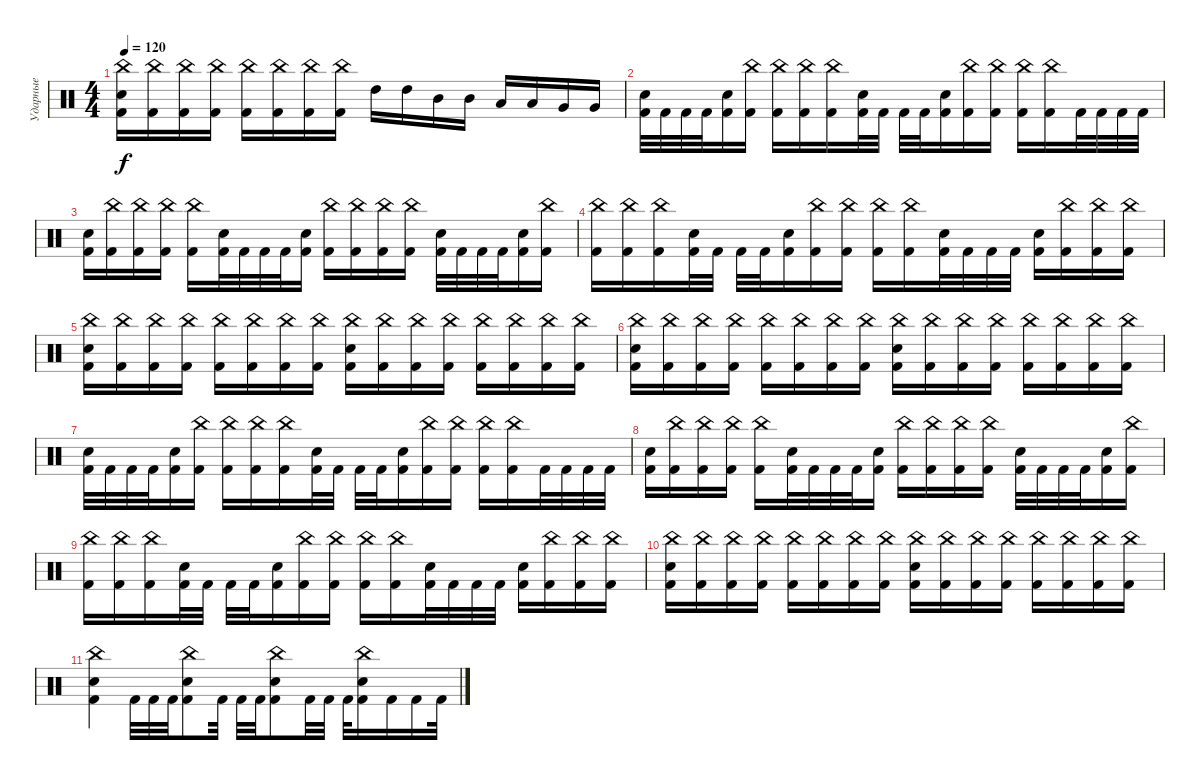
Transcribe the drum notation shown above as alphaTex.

\track ("Ударные" "Ударные") {instrument percussion}
\staff {score}
\articulation defaults
\ts (4 4)
\tempo 120
\clef neutral
\ks c
("China (hit)" "Snare (hit) 2" "Kick (hit) 2").16{dy f} ("China (hit)" "Kick (hit) 2").16 ("China (hit)" "Kick (hit) 2").16 ("China (hit)" "Kick (hit) 2").16 ("China (hit)" "Kick (hit) 2").16 ("China (hit)" "Kick (hit) 2").16 ("China (hit)" "Kick (hit) 2").16 ("China (hit)" "Kick (hit) 2").16 "High Tom (hit)".16 "High Tom (hit)".16 "Mid Tom (hit)".16 "Mid Tom (hit)".16 "Low Tom (hit)".16 "Low Tom (hit)".16 "Very Low Tom (hit)".16 "Very Low Tom (hit)".16 |
("Snare (hit) 2" "Kick (hit) 2").32 "Kick (hit) 2".32 "Kick (hit) 2".32 "Kick (hit) 2".32 ("Snare (hit) 2" "Kick (hit) 2").16 ("China (hit)" "Kick (hit) 2").16 ("China (hit)" "Kick (hit) 2").16 ("China (hit)" "Kick (hit) 2").16 ("China (hit)" "Kick (hit) 2").16 ("Snare (hit) 2" "Kick (hit) 2").32 "Kick (hit) 2".32 "Kick (hit) 2".32 "Kick (hit) 2".32 ("Snare (hit) 2" "Kick (hit) 2").16 ("China (hit)" "Kick (hit) 2").16 ("China (hit)" "Kick (hit) 2").16 ("China (hit)" "Kick (hit) 2").16 ("China (hit)" "Kick (hit) 2").16 "Kick (hit) 2".32 "Kick (hit) 2".32 "Kick (hit) 2".32 "Kick (hit) 2".32 |
("Snare (hit) 2" "Kick (hit) 2").16 ("China (hit)" "Kick (hit) 2").16 ("China (hit)" "Kick (hit) 2").16 ("China (hit)" "Kick (hit) 2").16 ("China (hit)" "Kick (hit) 2").16 ("Snare (hit) 2" "Kick (hit) 2").32 "Kick (hit) 2".32 "Kick (hit) 2".32 "Kick (hit) 2".32 ("Snare (hit) 2" "Kick (hit) 2").16 ("China (hit)" "Kick (hit) 2").16 ("China (hit)" "Kick (hit) 2").16 ("China (hit)" "Kick (hit) 2").16 ("China (hit)" "Kick (hit) 2").16 ("Snare (hit) 2" "Kick (hit) 2").32 "Kick (hit) 2".32 "Kick (hit) 2".32 "Kick (hit) 2".32 ("Snare (hit) 2" "Kick (hit) 2").16 ("China (hit)" "Kick (hit) 2").16 |
("China (hit)" "Kick (hit) 2").16 ("China (hit)" "Kick (hit) 2").16 ("China (hit)" "Kick (hit) 2").16 ("Snare (hit) 2" "Kick (hit) 2").32 "Kick (hit) 2".32 "Kick (hit) 2".32 "Kick (hit) 2".32 ("Snare (hit) 2" "Kick (hit) 2").16 ("China (hit)" "Kick (hit) 2").16 ("China (hit)" "Kick (hit) 2").16 ("China (hit)" "Kick (hit) 2").16 ("China (hit)" "Kick (hit) 2").16 ("Snare (hit) 2" "Kick (hit) 2").32 "Kick (hit) 2".32 "Kick (hit) 2".32 "Kick (hit) 2".32 ("Snare (hit) 2" "Kick (hit) 2").16 ("China (hit)" "Kick (hit) 2").16 ("China (hit)" "Kick (hit) 2").16 ("China (hit)" "Kick (hit) 2").16 |
("China (hit)" "Snare (hit) 2" "Kick (hit) 2").16 ("China (hit)" "Kick (hit) 2").16 ("China (hit)" "Kick (hit) 2").16 ("China (hit)" "Kick (hit) 2").16 ("China (hit)" "Kick (hit) 2").16 ("China (hit)" "Kick (hit) 2").16 ("China (hit)" "Kick (hit) 2").16 ("China (hit)" "Kick (hit) 2").16 ("China (hit)" "Snare (hit) 2" "Kick (hit) 2").16 ("China (hit)" "Kick (hit) 2").16 ("China (hit)" "Kick (hit) 2").16 ("China (hit)" "Kick (hit) 2").16 ("China (hit)" "Kick (hit) 2").16 ("China (hit)" "Kick (hit) 2").16 ("China (hit)" "Kick (hit) 2").16 ("China (hit)" "Kick (hit) 2").16 |
("China (hit)" "Snare (hit) 2" "Kick (hit) 2").16 ("China (hit)" "Kick (hit) 2").16 ("China (hit)" "Kick (hit) 2").16 ("China (hit)" "Kick (hit) 2").16 ("China (hit)" "Kick (hit) 2").16 ("China (hit)" "Kick (hit) 2").16 ("China (hit)" "Kick (hit) 2").16 ("China (hit)" "Kick (hit) 2").16 ("China (hit)" "Snare (hit) 2" "Kick (hit) 2").16 ("China (hit)" "Kick (hit) 2").16 ("China (hit)" "Kick (hit) 2").16 ("China (hit)" "Kick (hit) 2").16 ("China (hit)" "Kick (hit) 2").16 ("China (hit)" "Kick (hit) 2").16 ("China (hit)" "Kick (hit) 2").16 ("China (hit)" "Kick (hit) 2").16 |
("Snare (hit) 2" "Kick (hit) 2").32 "Kick (hit) 2".32 "Kick (hit) 2".32 "Kick (hit) 2".32 ("Snare (hit) 2" "Kick (hit) 2").16 ("China (hit)" "Kick (hit) 2").16 ("China (hit)" "Kick (hit) 2").16 ("China (hit)" "Kick (hit) 2").16 ("China (hit)" "Kick (hit) 2").16 ("Snare (hit) 2" "Kick (hit) 2").32 "Kick (hit) 2".32 "Kick (hit) 2".32 "Kick (hit) 2".32 ("Snare (hit) 2" "Kick (hit) 2").16 ("China (hit)" "Kick (hit) 2").16 ("China (hit)" "Kick (hit) 2").16 ("China (hit)" "Kick (hit) 2").16 ("China (hit)" "Kick (hit) 2").16 "Kick (hit) 2".32 "Kick (hit) 2".32 "Kick (hit) 2".32 "Kick (hit) 2".32 |
("Snare (hit) 2" "Kick (hit) 2").16 ("China (hit)" "Kick (hit) 2").16 ("China (hit)" "Kick (hit) 2").16 ("China (hit)" "Kick (hit) 2").16 ("China (hit)" "Kick (hit) 2").16 ("Snare (hit) 2" "Kick (hit) 2").32 "Kick (hit) 2".32 "Kick (hit) 2".32 "Kick (hit) 2".32 ("Snare (hit) 2" "Kick (hit) 2").16 ("China (hit)" "Kick (hit) 2").16 ("China (hit)" "Kick (hit) 2").16 ("China (hit)" "Kick (hit) 2").16 ("China (hit)" "Kick (hit) 2").16 ("Snare (hit) 2" "Kick (hit) 2").32 "Kick (hit) 2".32 "Kick (hit) 2".32 "Kick (hit) 2".32 ("Snare (hit) 2" "Kick (hit) 2").16 ("China (hit)" "Kick (hit) 2").16 |
("China (hit)" "Kick (hit) 2").16 ("China (hit)" "Kick (hit) 2").16 ("China (hit)" "Kick (hit) 2").16 ("Snare (hit) 2" "Kick (hit) 2").32 "Kick (hit) 2".32 "Kick (hit) 2".32 "Kick (hit) 2".32 ("Snare (hit) 2" "Kick (hit) 2").16 ("China (hit)" "Kick (hit) 2").16 ("China (hit)" "Kick (hit) 2").16 ("China (hit)" "Kick (hit) 2").16 ("China (hit)" "Kick (hit) 2").16 ("Snare (hit) 2" "Kick (hit) 2").32 "Kick (hit) 2".32 "Kick (hit) 2".32 "Kick (hit) 2".32 ("Snare (hit) 2" "Kick (hit) 2").16 ("China (hit)" "Kick (hit) 2").16 ("China (hit)" "Kick (hit) 2").16 ("China (hit)" "Kick (hit) 2").16 |
("China (hit)" "Snare (hit) 2" "Kick (hit) 2").16 ("China (hit)" "Kick (hit) 2").16 ("China (hit)" "Kick (hit) 2").16 ("China (hit)" "Kick (hit) 2").16 ("China (hit)" "Kick (hit) 2").16 ("China (hit)" "Kick (hit) 2").16 ("China (hit)" "Kick (hit) 2").16 ("China (hit)" "Kick (hit) 2").16 ("China (hit)" "Snare (hit) 2" "Kick (hit) 2").16 ("China (hit)" "Kick (hit) 2").16 ("China (hit)" "Kick (hit) 2").16 ("China (hit)" "Kick (hit) 2").16 ("China (hit)" "Kick (hit) 2").16 ("China (hit)" "Kick (hit) 2").16 ("China (hit)" "Kick (hit) 2").16 ("China (hit)" "Kick (hit) 2").16 |
("China (hit)" "Snare (hit) 2" "Kick (hit) 2").4 "Kick (hit) 2".32 "Kick (hit) 2".32 "Kick (hit) 2".32 ("China (hit)" "Snare (hit) 2" "Kick (hit) 2").8 "Kick (hit) 2".32 "Kick (hit) 2".32 "Kick (hit) 2".32 ("China (hit)" "Snare (hit) 2" "Kick (hit) 2").8 "Kick (hit) 2".32 "Kick (hit) 2".32 "Kick (hit) 2".32 ("China (hit)" "Snare (hit) 2" "Kick (hit) 2").16 "Kick (hit) 2".16 "Kick (hit) 2".16 "Kick (hit) 2".32
